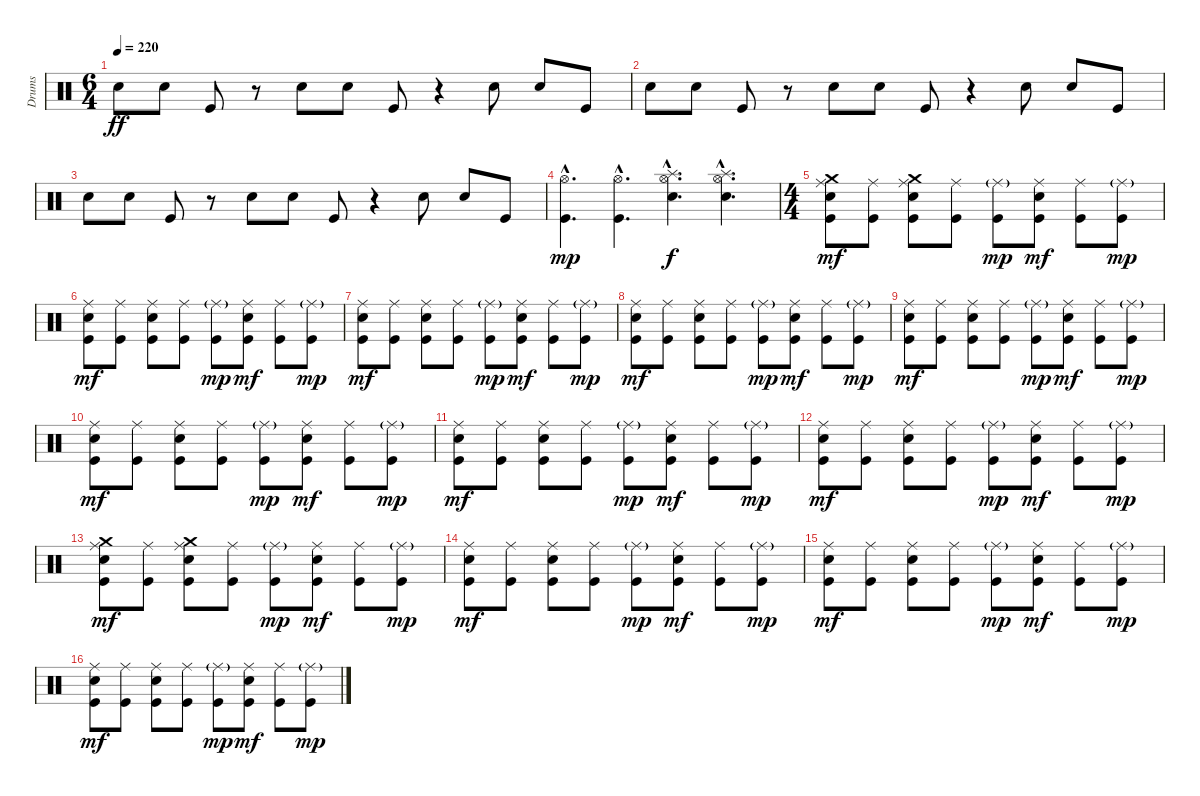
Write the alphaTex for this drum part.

\track ("Drums" "Drums") {instrument percussion}
\staff {score}
\articulation defaults
\ts (6 4)
\tempo 220
\clef neutral
\ks c "Electric Snare (hit)".8{dy ff} "Electric Snare (hit)".8 "Kick (hit)".8
r.8 "Electric Snare (hit)".8 "Electric Snare (hit)".8 "Kick (hit)".8 r.4 "Electric Snare (hit)".8 "Electric Snare (hit)".8 "Kick (hit)".8 |
"Electric Snare (hit)".8 "Electric Snare (hit)".8 "Kick (hit)".8 r.8 "Electric Snare (hit)".8 "Electric Snare (hit)".8 "Kick (hit)".8 r.4 "Electric Snare (hit)".8 "Electric Snare (hit)".8 "Kick (hit)".8 |
"Electric Snare (hit)".8 "Electric Snare (hit)".8 "Kick (hit)".8 r.8 "Electric Snare (hit)".8 "Electric Snare (hit)".8 "Kick (hit)".8 r.4 "Electric Snare (hit)".8 "Electric Snare (hit)".8 "Kick (hit)".8 |
("Hi-Hat (open)"{hac} "Kick (hit)"{hac}).4{d dy mp} ("Hi-Hat (open)"{hac} "Kick (hit)"{hac}).4{d} ("Splash (hit)"{hac} "Hi-Hat (open)"{hac} "Electric Snare (hit)"{hac}).4{d dy f} ("Splash (hit)"{hac} "Hi-Hat (open)"{hac} "Electric Snare (hit)"{hac}).4{d} |
\ts (4 4)
("Crash medium (hit)" "Ride (middle)" "Electric Snare (hit)" "Kick (hit)").8{dy mf} ("Ride (middle)" "Kick (hit)").8 ("Crash medium (hit)" "Ride (middle)" "Electric Snare (hit)" "Kick (hit)").8 ("Ride (middle)" "Kick (hit)").8 ("Ride (middle)"{g} "Kick (hit)").8{dy mp} ("Ride (middle)" "Electric Snare (hit)" "Kick (hit)").8{dy mf} ("Ride (middle)" "Kick (hit)").8 ("Ride (middle)"{g} "Kick (hit)").8{dy mp} |
("Ride (middle)" "Electric Snare (hit)" "Kick (hit)").8{dy mf} ("Ride (middle)" "Kick (hit)").8 ("Ride (middle)" "Electric Snare (hit)" "Kick (hit)").8 ("Ride (middle)" "Kick (hit)").8 ("Ride (middle)"{g} "Kick (hit)").8{dy mp} ("Ride (middle)" "Electric Snare (hit)" "Kick (hit)").8{dy mf} ("Ride (middle)" "Kick (hit)").8 ("Ride (middle)"{g} "Kick (hit)").8{dy mp} |
("Ride (middle)" "Electric Snare (hit)" "Kick (hit)").8{dy mf} ("Ride (middle)" "Kick (hit)").8 ("Ride (middle)" "Electric Snare (hit)" "Kick (hit)").8 ("Ride (middle)" "Kick (hit)").8 ("Ride (middle)"{g} "Kick (hit)").8{dy mp} ("Ride (middle)" "Electric Snare (hit)" "Kick (hit)").8{dy mf} ("Ride (middle)" "Kick (hit)").8 ("Ride (middle)"{g} "Kick (hit)").8{dy mp} |
("Ride (middle)" "Electric Snare (hit)" "Kick (hit)").8{dy mf} ("Ride (middle)" "Kick (hit)").8 ("Ride (middle)" "Electric Snare (hit)" "Kick (hit)").8 ("Ride (middle)" "Kick (hit)").8 ("Ride (middle)"{g} "Kick (hit)").8{dy mp} ("Ride (middle)" "Electric Snare (hit)" "Kick (hit)").8{dy mf} ("Ride (middle)" "Kick (hit)").8 ("Ride (middle)"{g} "Kick (hit)").8{dy mp} |
("Ride (middle)" "Electric Snare (hit)" "Kick (hit)").8{dy mf} ("Ride (middle)" "Kick (hit)").8 ("Ride (middle)" "Electric Snare (hit)" "Kick (hit)").8 ("Ride (middle)" "Kick (hit)").8 ("Ride (middle)"{g} "Kick (hit)").8{dy mp} ("Ride (middle)" "Electric Snare (hit)" "Kick (hit)").8{dy mf} ("Ride (middle)" "Kick (hit)").8 ("Ride (middle)"{g} "Kick (hit)").8{dy mp} |
("Ride (middle)" "Electric Snare (hit)" "Kick (hit)").8{dy mf} ("Ride (middle)" "Kick (hit)").8 ("Ride (middle)" "Electric Snare (hit)" "Kick (hit)").8 ("Ride (middle)" "Kick (hit)").8 ("Ride (middle)"{g} "Kick (hit)").8{dy mp} ("Ride (middle)" "Electric Snare (hit)" "Kick (hit)").8{dy mf} ("Ride (middle)" "Kick (hit)").8 ("Ride (middle)"{g} "Kick (hit)").8{dy mp} |
("Ride (middle)" "Electric Snare (hit)" "Kick (hit)").8{dy mf} ("Ride (middle)" "Kick (hit)").8 ("Ride (middle)" "Electric Snare (hit)" "Kick (hit)").8 ("Ride (middle)" "Kick (hit)").8 ("Ride (middle)"{g} "Kick (hit)").8{dy mp} ("Ride (middle)" "Electric Snare (hit)" "Kick (hit)").8{dy mf} ("Ride (middle)" "Kick (hit)").8 ("Ride (middle)"{g} "Kick (hit)").8{dy mp} |
("Ride (middle)" "Electric Snare (hit)" "Kick (hit)").8{dy mf} ("Ride (middle)" "Kick (hit)").8 ("Ride (middle)" "Electric Snare (hit)" "Kick (hit)").8 ("Ride (middle)" "Kick (hit)").8 ("Ride (middle)"{g} "Kick (hit)").8{dy mp} ("Ride (middle)" "Electric Snare (hit)" "Kick (hit)").8{dy mf} ("Ride (middle)" "Kick (hit)").8 ("Ride (middle)"{g} "Kick (hit)").8{dy mp} |
("Crash medium (hit)" "Ride (middle)" "Electric Snare (hit)" "Kick (hit)").8{dy mf} ("Ride (middle)" "Kick (hit)").8 ("Crash medium (hit)" "Ride (middle)" "Electric Snare (hit)" "Kick (hit)").8 ("Ride (middle)" "Kick (hit)").8 ("Ride (middle)"{g} "Kick (hit)").8{dy mp} ("Ride (middle)" "Electric Snare (hit)" "Kick (hit)").8{dy mf} ("Ride (middle)" "Kick (hit)").8 ("Ride (middle)"{g} "Kick (hit)").8{dy mp} |
("Ride (middle)" "Electric Snare (hit)" "Kick (hit)").8{dy mf} ("Ride (middle)" "Kick (hit)").8 ("Ride (middle)" "Electric Snare (hit)" "Kick (hit)").8 ("Ride (middle)" "Kick (hit)").8 ("Ride (middle)"{g} "Kick (hit)").8{dy mp} ("Ride (middle)" "Electric Snare (hit)" "Kick (hit)").8{dy mf} ("Ride (middle)" "Kick (hit)").8 ("Ride (middle)"{g} "Kick (hit)").8{dy mp} |
("Ride (middle)" "Electric Snare (hit)" "Kick (hit)").8{dy mf} ("Ride (middle)" "Kick (hit)").8 ("Ride (middle)" "Electric Snare (hit)" "Kick (hit)").8 ("Ride (middle)" "Kick (hit)").8 ("Ride (middle)"{g} "Kick (hit)").8{dy mp} ("Ride (middle)" "Electric Snare (hit)" "Kick (hit)").8{dy mf} ("Ride (middle)" "Kick (hit)").8 ("Ride (middle)"{g} "Kick (hit)").8{dy mp} |
("Ride (middle)" "Electric Snare (hit)" "Kick (hit)").8{dy mf} ("Ride (middle)" "Kick (hit)").8 ("Ride (middle)" "Electric Snare (hit)" "Kick (hit)").8 ("Ride (middle)" "Kick (hit)").8 ("Ride (middle)"{g} "Kick (hit)").8{dy mp} ("Ride (middle)" "Electric Snare (hit)" "Kick (hit)").8{dy mf} ("Ride (middle)" "Kick (hit)").8 ("Ride (middle)"{g} "Kick (hit)").8{dy mp}
